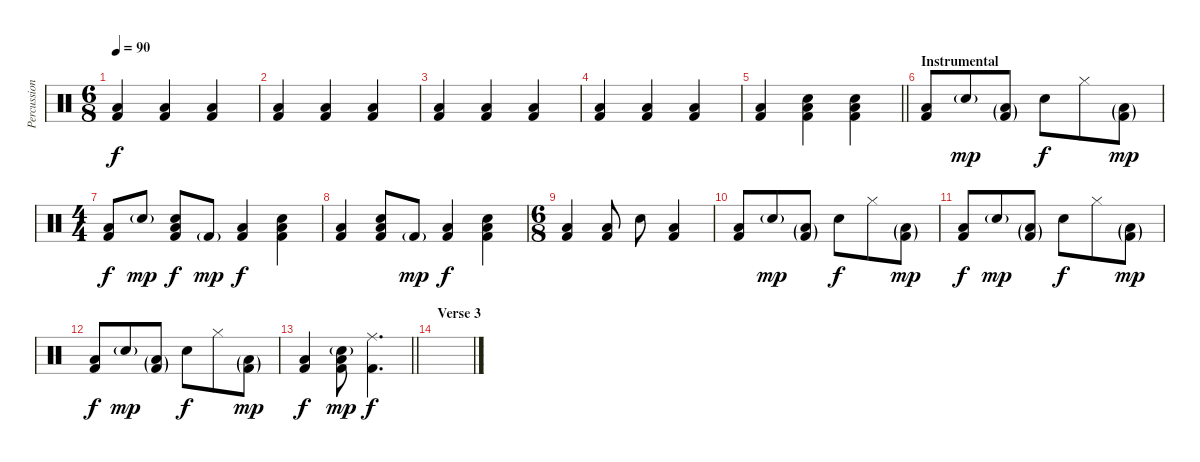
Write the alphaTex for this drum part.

\track ("Percussion" "Percussion") {instrument percussion}
\staff {score}
\articulation defaults
\ts (6 8)
\tempo 90
\clef neutral
\ks c
("Low Floor Tom (hit)" "Kick (hit) 2").4{dy f} ("Low Floor Tom (hit)" "Kick (hit) 2").4 ("Low Floor Tom (hit)" "Kick (hit) 2").4 |
("Low Floor Tom (hit)" "Kick (hit) 2").4 ("Low Floor Tom (hit)" "Kick (hit) 2").4 ("Low Floor Tom (hit)" "Kick (hit) 2").4 |
("Low Floor Tom (hit)" "Kick (hit) 2").4 ("Low Floor Tom (hit)" "Kick (hit) 2").4 ("Low Floor Tom (hit)" "Kick (hit) 2").4 |
("Low Floor Tom (hit)" "Kick (hit) 2").4 ("Low Floor Tom (hit)" "Kick (hit) 2").4 ("Low Floor Tom (hit)" "Kick (hit) 2").4 |
\barLineRight lightlight
("Low Floor Tom (hit)" "Kick (hit) 2").4 ("Snare (hit) 2" "Low Floor Tom (hit)" "Kick (hit) 2").4 ("Snare (hit) 2" "Low Floor Tom (hit)" "Kick (hit) 2").4 |
\section ("" "Instrumental")
("Low Floor Tom (hit)" "Kick (hit) 2").8 "Snare (hit) 2"{g}.8{dy mp} ("Low Floor Tom (hit)"{g} "Kick (hit) 2"{g}).8 "Snare (hit) 2".8{dy f} "Hi-Hat (closed)".8 ("Low Floor Tom (hit)"{g} "Kick (hit) 2"{g}).8{dy mp} |
\ts (4 4)
("Low Floor Tom (hit)" "Kick (hit) 2").8{dy f} "Snare (hit) 2"{g}.8{dy mp} ("Snare (hit) 2" "Low Floor Tom (hit)" "Kick (hit) 2").8{dy f} "Kick (hit) 2"{g}.8{dy mp} ("Low Floor Tom (hit)" "Kick (hit) 2").4{dy f} ("Snare (hit) 2" "Low Floor Tom (hit)" "Kick (hit) 2").4 |
("Low Floor Tom (hit)" "Kick (hit) 2").4 ("Snare (hit) 2" "Low Floor Tom (hit)" "Kick (hit) 2").8 "Kick (hit) 2"{g}.8{dy mp} ("Low Floor Tom (hit)" "Kick (hit) 2").4{dy f} ("Snare (hit) 2" "Low Floor Tom (hit)" "Kick (hit) 2").4 |
\ts (6 8)
("Low Floor Tom (hit)" "Kick (hit) 2").4 ("Low Floor Tom (hit)" "Kick (hit) 2").8 "Snare (hit) 2".8 ("Low Floor Tom (hit)" "Kick (hit) 2").4 |
("Low Floor Tom (hit)" "Kick (hit) 2").8 "Snare (hit) 2"{g}.8{dy mp} ("Low Floor Tom (hit)"{g} "Kick (hit) 2"{g}).8 "Snare (hit) 2".8{dy f} "Hi-Hat (closed)".8 ("Low Floor Tom (hit)"{g} "Kick (hit) 2"{g}).8{dy mp} |
("Low Floor Tom (hit)" "Kick (hit) 2").8{dy f} "Snare (hit) 2"{g}.8{dy mp} ("Low Floor Tom (hit)"{g} "Kick (hit) 2"{g}).8 "Snare (hit) 2".8{dy f} "Hi-Hat (closed)".8 ("Low Floor Tom (hit)"{g} "Kick (hit) 2"{g}).8{dy mp} |
("Low Floor Tom (hit)" "Kick (hit) 2").8{dy f} "Snare (hit) 2"{g}.8{dy mp} ("Low Floor Tom (hit)"{g} "Kick (hit) 2"{g}).8 "Snare (hit) 2".8{dy f} "Hi-Hat (closed)".8 ("Low Floor Tom (hit)"{g} "Kick (hit) 2"{g}).8{dy mp} |
\barLineRight lightlight
("Low Floor Tom (hit)" "Kick (hit) 2").4{dy f} ("Snare (hit) 2"{g} "Low Floor Tom (hit)" "Kick (hit) 2").8{dy mp} ("Ride (middle)" "Kick (hit) 2").4{d dy f} |
\section ("" "Verse 3")
